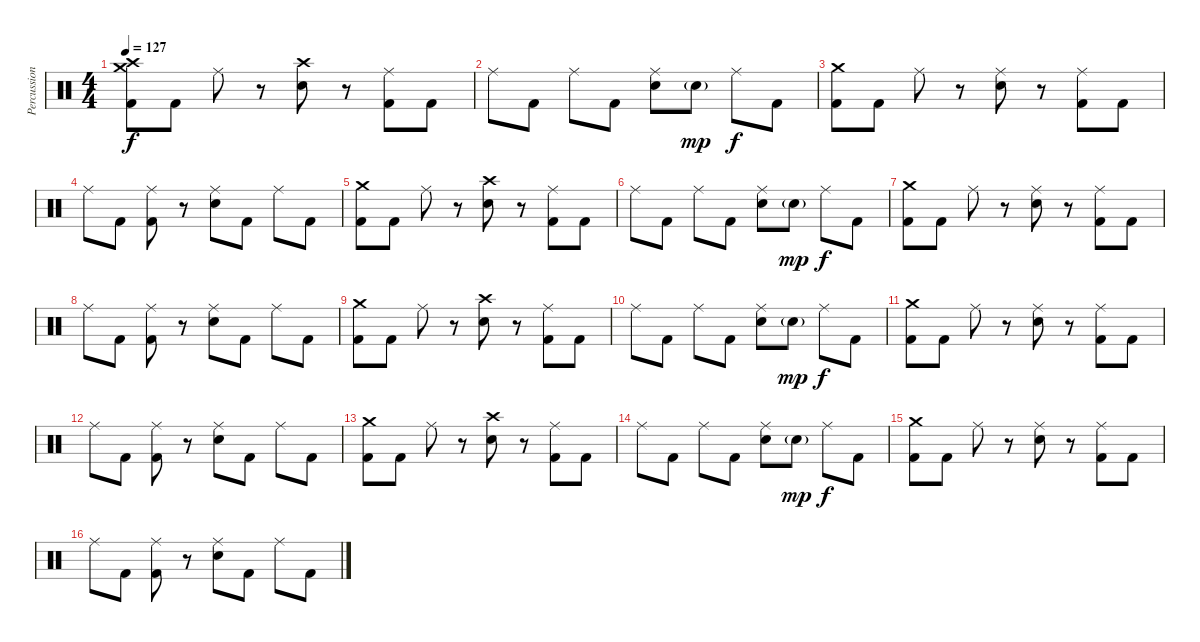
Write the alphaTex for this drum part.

\track ("Percussion" "Percussion") {instrument percussion}
\staff {score}
\articulation defaults
\ts (4 4)
\tempo 127
\clef neutral
\ks c
("Crash medium (hit)" "Crash high (hit)" "Kick (hit) 2").8{dy f} "Kick (hit) 2".8 "Ride (middle)".8 r.8 ("Crash high (hit)" "Snare (hit) 2").8 r.8 ("Ride (middle)" "Kick (hit) 2").8 "Kick (hit) 2".8 |
"Ride (middle)".8 "Kick (hit) 2".8 "Ride (middle)".8 "Kick (hit) 2".8 ("Ride (middle)" "Snare (hit) 2").8 "Snare (hit) 2"{g}.8{dy mp} "Ride (middle)".8{dy f} "Kick (hit) 2".8 |
("Crash medium (hit)" "Kick (hit) 2").8 "Kick (hit) 2".8 "Ride (middle)".8 r.8 ("Ride (middle)" "Snare (hit) 2").8 r.8 ("Ride (middle)" "Kick (hit) 2").8 "Kick (hit) 2".8 |
"Ride (middle)".8 "Kick (hit) 2".8 ("Ride (middle)" "Kick (hit) 2").8 r.8 ("Ride (middle)" "Snare (hit) 2").8 "Kick (hit) 2".8 "Ride (middle)".8 "Kick (hit) 2".8 |
("Crash medium (hit)" "Kick (hit) 2").8 "Kick (hit) 2".8 "Ride (middle)".8 r.8 ("Crash high (hit)" "Snare (hit) 2").8 r.8 ("Ride (middle)" "Kick (hit) 2").8 "Kick (hit) 2".8 |
"Ride (middle)".8 "Kick (hit) 2".8 "Ride (middle)".8 "Kick (hit) 2".8 ("Ride (middle)" "Snare (hit) 2").8 "Snare (hit) 2"{g}.8{dy mp} "Ride (middle)".8{dy f} "Kick (hit) 2".8 |
("Crash medium (hit)" "Kick (hit) 2").8 "Kick (hit) 2".8 "Ride (middle)".8 r.8 ("Ride (middle)" "Snare (hit) 2").8 r.8 ("Ride (middle)" "Kick (hit) 2").8 "Kick (hit) 2".8 |
"Ride (middle)".8 "Kick (hit) 2".8 ("Ride (middle)" "Kick (hit) 2").8 r.8 ("Ride (middle)" "Snare (hit) 2").8 "Kick (hit) 2".8 "Ride (middle)".8 "Kick (hit) 2".8 |
("Crash medium (hit)" "Kick (hit) 2").8 "Kick (hit) 2".8 "Ride (middle)".8 r.8 ("Crash high (hit)" "Snare (hit) 2").8 r.8 ("Ride (middle)" "Kick (hit) 2").8 "Kick (hit) 2".8 |
"Ride (middle)".8 "Kick (hit) 2".8 "Ride (middle)".8 "Kick (hit) 2".8 ("Ride (middle)" "Snare (hit) 2").8 "Snare (hit) 2"{g}.8{dy mp} "Ride (middle)".8{dy f} "Kick (hit) 2".8 |
("Crash medium (hit)" "Kick (hit) 2").8 "Kick (hit) 2".8 "Ride (middle)".8 r.8 ("Ride (middle)" "Snare (hit) 2").8 r.8 ("Ride (middle)" "Kick (hit) 2").8 "Kick (hit) 2".8 |
"Ride (middle)".8 "Kick (hit) 2".8 ("Ride (middle)" "Kick (hit) 2").8 r.8 ("Ride (middle)" "Snare (hit) 2").8 "Kick (hit) 2".8 "Ride (middle)".8 "Kick (hit) 2".8 |
("Crash medium (hit)" "Kick (hit) 2").8 "Kick (hit) 2".8 "Ride (middle)".8 r.8 ("Crash high (hit)" "Snare (hit) 2").8 r.8 ("Ride (middle)" "Kick (hit) 2").8 "Kick (hit) 2".8 |
"Ride (middle)".8 "Kick (hit) 2".8 "Ride (middle)".8 "Kick (hit) 2".8 ("Ride (middle)" "Snare (hit) 2").8 "Snare (hit) 2"{g}.8{dy mp} "Ride (middle)".8{dy f} "Kick (hit) 2".8 |
("Crash medium (hit)" "Kick (hit) 2").8 "Kick (hit) 2".8 "Ride (middle)".8 r.8 ("Ride (middle)" "Snare (hit) 2").8 r.8 ("Ride (middle)" "Kick (hit) 2").8 "Kick (hit) 2".8 |
"Ride (middle)".8 "Kick (hit) 2".8 ("Ride (middle)" "Kick (hit) 2").8 r.8 ("Ride (middle)" "Snare (hit) 2").8 "Kick (hit) 2".8 "Ride (middle)".8 "Kick (hit) 2".8
